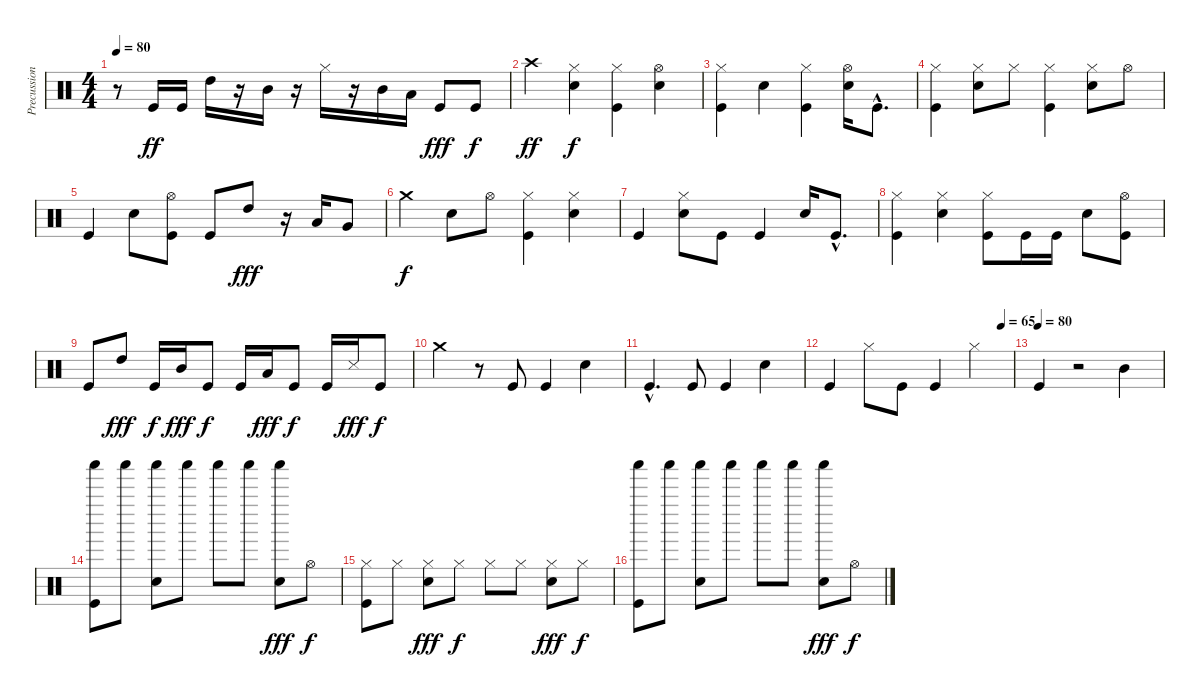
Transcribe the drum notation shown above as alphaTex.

\track ("Precussion" "Precussion") {instrument percussion}
\staff {score}
\articulation defaults
\ts (4 4)
\tempo 80
\clef neutral
\ks c
r.8{dy f balance 8} "Kick (hit)".16{dy ff} "Kick (hit)".16 "High Tom (hit)".16 r.16 "Mid Tom (hit)".16 r.16 "Hi-Hat (closed)".16 r.16 "Mid Tom (hit)".16 "Low Tom (hit)".16 "Kick (hit)".8{dy fff} "Kick (hit)".8{dy f} |
"Crash high (hit)".4{dy ff} ("Hi-Hat (closed)" "Snare (hit) 2").4{dy f} ("Hi-Hat (closed)" "Kick (hit)").4 ("Hi-Hat (open)" "Snare (hit) 2").4 |
("Hi-Hat (closed)" "Kick (hit)").4 "Snare (hit) 2".4 ("Hi-Hat (closed)" "Kick (hit)").4 ("Hi-Hat (open)" "Snare (hit) 2").16 "Kick (hit)"{hac}.8{d} |
("Hi-Hat (closed)" "Kick (hit)").4 ("Hi-Hat (closed)" "Snare (hit) 2").8 "Hi-Hat (closed)".8 ("Hi-Hat (closed)" "Kick (hit)").4 ("Hi-Hat (closed)" "Snare (hit) 2").8 "Hi-Hat (open)".8 |
"Kick (hit)".4 "Snare (hit) 2".8 ("Hi-Hat (open)" "Kick (hit)").8 "Kick (hit)".8 "High Tom (hit)".8{dy fff} r.16 "Low Tom (hit)".16 "Very Low Tom (hit)".8 |
"Crash medium (hit)".4{dy f} "Snare (hit) 2".8 "Hi-Hat (open)".8 ("Hi-Hat (closed)" "Kick (hit)").4 ("Hi-Hat (closed)" "Snare (hit) 2").4 |
"Kick (hit)".4 ("Hi-Hat (closed)" "Snare (hit) 2").8 "Kick (hit)".8 "Kick (hit)".4 "Snare (hit) 2".16 "Kick (hit)"{hac}.8{d} |
("Hi-Hat (closed)" "Kick (hit)").4 ("Hi-Hat (closed)" "Snare (hit) 2").4 ("Hi-Hat (closed)" "Kick (hit)").8 "Kick (hit)".16 "Kick (hit)".16 "Snare (hit) 2".8 ("Hi-Hat (open)" "Kick (hit)").8 |
"Kick (hit)".8{volume 16} "High Tom (hit)".8{dy fff} "Kick (hit)".16{dy f} "Mid Tom (hit)".16{dy fff} "Kick (hit)".8{dy f} "Kick (hit)".16 "Low Tom (hit)".16{dy fff} "Kick (hit)".8{dy f} "Kick (hit)".16 "Metronome (hit)".16{dy fff} "Kick (hit)".8{dy f} |
"Crash medium (hit)".4 r.8 "Kick (hit)".8 "Kick (hit)".4 "Snare (hit)".4{balance 15} |
"Kick (hit)"{hac}.4{d balance 8} "Kick (hit)".8 "Kick (hit)".4 "Snare (hit)".4{balance 14} |
\tempo (65 0.9375)
"Kick (hit)".4{balance 8} "Hi-Hat (closed)".8 "Kick (hit)".8 "Kick (hit)".4 "Hi-Hat (closed)".4 |
\tempo (80)
"Kick (hit)".4 r.2 "Mid Tom (hit)".4{volume 15 balance 14} |
("Shaker (hit)" "Kick (hit)").8{volume 15 balance 8} "Shaker (hit)".8 ("Shaker (hit)" "Snare (hit)").8 "Shaker (hit)".8 "Shaker (hit)".8 "Shaker (hit)".8 ("Shaker (hit)" "Snare (hit)").8{dy fff} "Hi-Hat (open)".8{dy f} |
("Hi-Hat (closed)" "Kick (hit)").8 "Hi-Hat (closed)".8 ("Hi-Hat (closed)" "Snare (hit)").8{dy fff} "Hi-Hat (closed)".8{dy f} "Hi-Hat (closed)".8 "Hi-Hat (closed)".8 ("Hi-Hat (closed)" "Snare (hit)").8{dy fff} "Hi-Hat (closed)".8{dy f} |
("Shaker (hit)" "Kick (hit)").8 "Shaker (hit)".8 ("Shaker (hit)" "Snare (hit)").8 "Shaker (hit)".8 "Shaker (hit)".8 "Shaker (hit)".8 ("Shaker (hit)" "Snare (hit)").8{dy fff} "Hi-Hat (open)".8{dy f}
